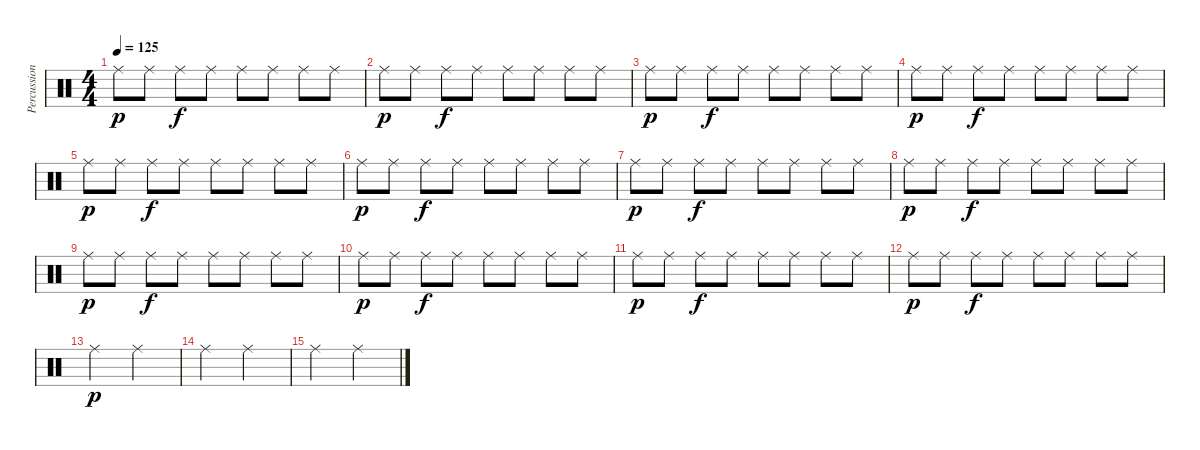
\track ("Percussion" "Percussion") {instrument percussion}
\staff {score}
\articulation defaults
\ts (4 4)
\tempo 125
\clef neutral
\ks c "Ride (middle)".8{dy p} "Ride (middle)".8 "Ride (middle)".8{dy f} "Ride (middle)".8 "Ride (middle)".8 "Ride (middle)".8 "Ride (middle)".8 "Ride (middle)".8
|
"Ride (middle)".8{dy p} "Ride (middle)".8 "Ride (middle)".8{dy f} "Ride (middle)".8 "Ride (middle)".8 "Ride (middle)".8 "Ride (middle)".8 "Ride (middle)".8 |
"Ride (middle)".8{dy p} "Ride (middle)".8 "Ride (middle)".8{dy f} "Ride (middle)".8 "Ride (middle)".8 "Ride (middle)".8 "Ride (middle)".8 "Ride (middle)".8 |
"Ride (middle)".8{dy p} "Ride (middle)".8 "Ride (middle)".8{dy f} "Ride (middle)".8 "Ride (middle)".8 "Ride (middle)".8 "Ride (middle)".8 "Ride (middle)".8 |
"Ride (middle)".8{dy p} "Ride (middle)".8 "Ride (middle)".8{dy f} "Ride (middle)".8 "Ride (middle)".8 "Ride (middle)".8 "Ride (middle)".8 "Ride (middle)".8 |
"Ride (middle)".8{dy p} "Ride (middle)".8 "Ride (middle)".8{dy f} "Ride (middle)".8 "Ride (middle)".8 "Ride (middle)".8 "Ride (middle)".8 "Ride (middle)".8 |
"Ride (middle)".8{dy p} "Ride (middle)".8 "Ride (middle)".8{dy f} "Ride (middle)".8 "Ride (middle)".8 "Ride (middle)".8 "Ride (middle)".8 "Ride (middle)".8 |
"Ride (middle)".8{dy p} "Ride (middle)".8 "Ride (middle)".8{dy f} "Ride (middle)".8 "Ride (middle)".8 "Ride (middle)".8 "Ride (middle)".8 "Ride (middle)".8 |
"Ride (middle)".8{dy p} "Ride (middle)".8 "Ride (middle)".8{dy f} "Ride (middle)".8 "Ride (middle)".8 "Ride (middle)".8 "Ride (middle)".8 "Ride (middle)".8 |
"Ride (middle)".8{dy p} "Ride (middle)".8 "Ride (middle)".8{dy f} "Ride (middle)".8 "Ride (middle)".8 "Ride (middle)".8 "Ride (middle)".8 "Ride (middle)".8 |
"Ride (middle)".8{dy p} "Ride (middle)".8 "Ride (middle)".8{dy f} "Ride (middle)".8 "Ride (middle)".8 "Ride (middle)".8 "Ride (middle)".8 "Ride (middle)".8 |
"Ride (middle)".8{dy p} "Ride (middle)".8 "Ride (middle)".8{dy f} "Ride (middle)".8 "Ride (middle)".8 "Ride (middle)".8 "Ride (middle)".8 "Ride (middle)".8 |
"Ride (middle)".2{dy p} "Ride (middle)".2 |
"Ride (middle)".2 "Ride (middle)".2 |
"Ride (middle)".2 "Ride (middle)".2
